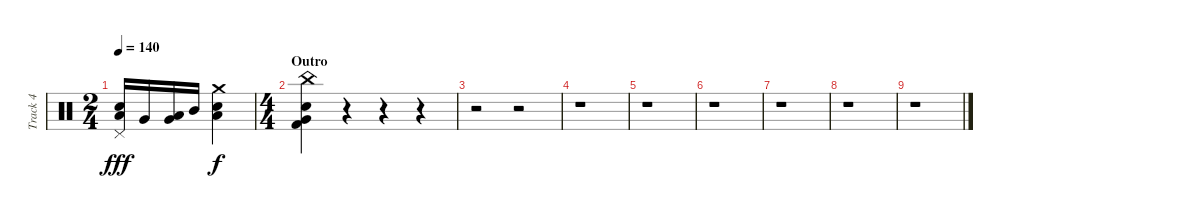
\track ("Track 4" "Track 4") {instrument percussion}
\staff {score}
\articulation defaults
\ts (2 4)
\tempo 140
\clef neutral
\ks c
("Low Tom (hit)" "Pedal Hi-Hat (hit)" "Electric Snare (hit)").16{dy fff} "Very Low Tom (hit)".16 ("Very Low Tom (hit)" "Low Tom (hit)").16 "Mid Tom (hit)".16 ("Low Tom (hit)" "Snare (hit) 2" "Crash medium (hit)").4{dy f} |
\ts (4 4)
\section ("" "Outro")
("Kick (hit) 2" "Snare (hit) 2" "Very Low Tom (hit)" "China (hit)").4 r.4 r.4 r.4 |
r.2 r.2 |
r.1 |
r.1 |
r.1 |
r.1 |
r.1 |
r.1
